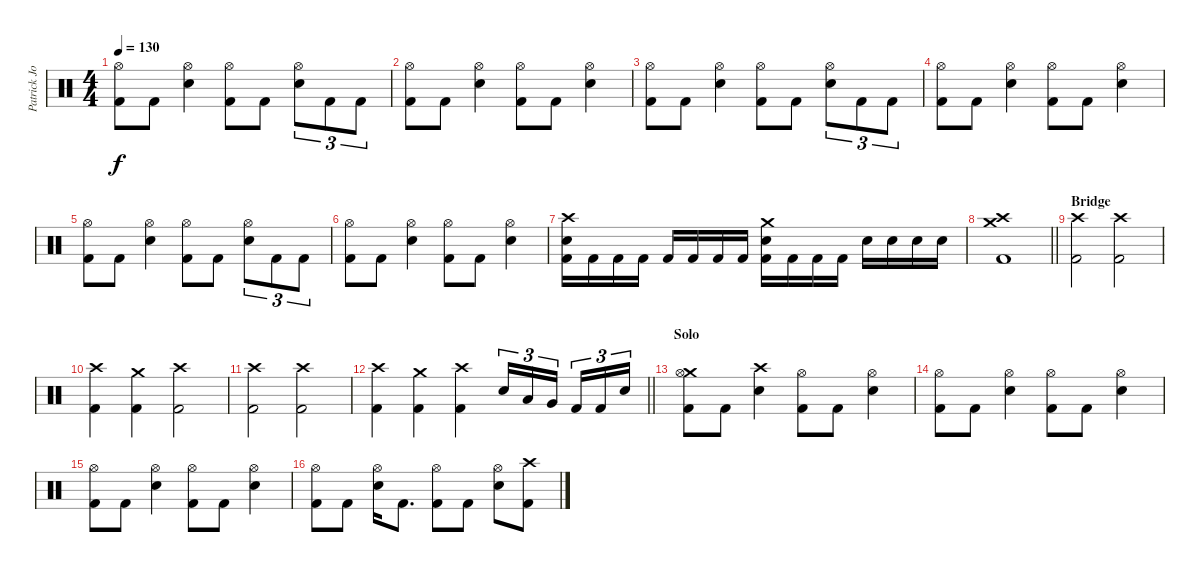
\track ("Patrick Johansson " "Patrick Jo") {instrument percussion}
\staff {score}
\articulation defaults
\ts (4 4)
\tempo 130
\clef neutral
\ks c
("Hi-Hat (open)" "Kick (hit) 2").8{dy f} "Kick (hit) 2".8 ("Hi-Hat (open)" "Snare (hit) 2").4 ("Hi-Hat (open)" "Kick (hit) 2").8 "Kick (hit) 2".8 ("Hi-Hat (open)" "Snare (hit) 2").8{tu (3 2)} "Kick (hit) 2".8{tu (3 2)} "Kick (hit) 2".8{tu (3 2)} |
("Hi-Hat (open)" "Kick (hit) 2").8 "Kick (hit) 2".8 ("Hi-Hat (open)" "Snare (hit) 2").4 ("Hi-Hat (open)" "Kick (hit) 2").8 "Kick (hit) 2".8 ("Hi-Hat (open)" "Snare (hit) 2").4 |
("Hi-Hat (open)" "Kick (hit) 2").8 "Kick (hit) 2".8 ("Hi-Hat (open)" "Snare (hit) 2").4 ("Hi-Hat (open)" "Kick (hit) 2").8 "Kick (hit) 2".8 ("Hi-Hat (open)" "Snare (hit) 2").8{tu (3 2)} "Kick (hit) 2".8{tu (3 2)} "Kick (hit) 2".8{tu (3 2)} |
("Hi-Hat (open)" "Kick (hit) 2").8 "Kick (hit) 2".8 ("Hi-Hat (open)" "Snare (hit) 2").4 ("Hi-Hat (open)" "Kick (hit) 2").8 "Kick (hit) 2".8 ("Hi-Hat (open)" "Snare (hit) 2").4 |
("Hi-Hat (open)" "Kick (hit) 2").8 "Kick (hit) 2".8 ("Hi-Hat (open)" "Snare (hit) 2").4 ("Hi-Hat (open)" "Kick (hit) 2").8 "Kick (hit) 2".8 ("Hi-Hat (open)" "Snare (hit) 2").8{tu (3 2)} "Kick (hit) 2".8{tu (3 2)} "Kick (hit) 2".8{tu (3 2)} |
("Hi-Hat (open)" "Kick (hit) 2").8 "Kick (hit) 2".8 ("Hi-Hat (open)" "Snare (hit) 2").4 ("Hi-Hat (open)" "Kick (hit) 2").8 "Kick (hit) 2".8 ("Hi-Hat (open)" "Snare (hit) 2").4 |
("Crash high (hit)" "Snare (hit) 2" "Kick (hit) 2").16 "Kick (hit) 2".16 "Kick (hit) 2".16 "Kick (hit) 2".16 "Kick (hit) 2".16 "Kick (hit) 2".16 "Kick (hit) 2".16 "Kick (hit) 2".16 ("Crash medium (hit)" "Snare (hit) 2" "Kick (hit) 2").16 "Kick (hit) 2".16 "Kick (hit) 2".16 "Kick (hit) 2".16 "Snare (hit) 2".16 "Snare (hit) 2".16 "Snare (hit) 2".16 "Snare (hit) 2".16 |
\barLineRight lightlight
("Crash medium (hit)" "Crash high (hit)" "Kick (hit) 2").1 |
\section ("" "Bridge")
("Crash high (hit)" "Kick (hit) 2").2 ("Crash high (hit)" "Kick (hit) 2").2 |
("Crash high (hit)" "Kick (hit) 2").4 ("Crash medium (hit)" "Kick (hit) 2").4 ("Crash high (hit)" "Kick (hit) 2").2 |
("Crash high (hit)" "Kick (hit) 2").2 ("Crash high (hit)" "Kick (hit) 2").2 |
\barLineRight lightlight
("Crash high (hit)" "Kick (hit) 2").4 ("Crash medium (hit)" "Kick (hit) 2").4 ("Crash high (hit)" "Kick (hit) 2").4 "Snare (hit) 2".16{tu (3 2)} "Low Tom (hit)".16{tu (3 2)} "Very Low Tom (hit)".16{tu (3 2) beam splitsecondary} "Kick (hit) 2".16{tu (3 2)} "Kick (hit) 2".16{tu (3 2)} "Snare (hit) 2".16{tu (3 2)} |
\section ("" "Solo")
("Crash medium (hit)" "Hi-Hat (open)" "Kick (hit) 2").8 "Kick (hit) 2".8 ("Crash high (hit)" "Snare (hit) 2").4 ("Hi-Hat (open)" "Kick (hit) 2").8 "Kick (hit) 2".8 ("Hi-Hat (open)" "Snare (hit) 2").4 |
("Hi-Hat (open)" "Kick (hit) 2").8 "Kick (hit) 2".8 ("Hi-Hat (open)" "Snare (hit) 2").4 ("Hi-Hat (open)" "Kick (hit) 2").8 "Kick (hit) 2".8 ("Hi-Hat (open)" "Snare (hit) 2").4 |
("Hi-Hat (open)" "Kick (hit) 2").8 "Kick (hit) 2".8 ("Hi-Hat (open)" "Snare (hit) 2").4 ("Hi-Hat (open)" "Kick (hit) 2").8 "Kick (hit) 2".8 ("Hi-Hat (open)" "Snare (hit) 2").4 |
("Hi-Hat (open)" "Kick (hit) 2").8 "Kick (hit) 2".8 ("Hi-Hat (open)" "Snare (hit) 2").16 "Kick (hit) 2".8{d} ("Hi-Hat (open)" "Kick (hit) 2").8 "Kick (hit) 2".8 ("Hi-Hat (open)" "Snare (hit) 2").8 ("Crash high (hit)" "Kick (hit) 2").8
